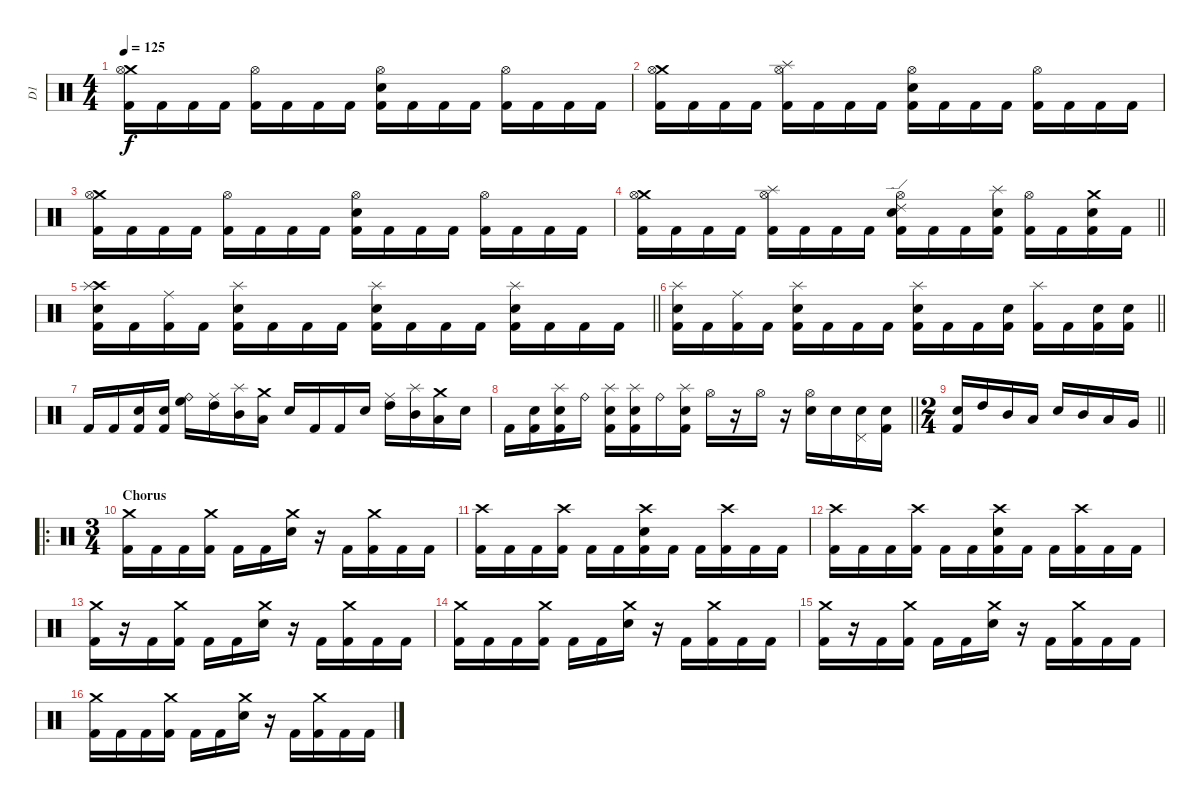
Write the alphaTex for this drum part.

\track ("D1" "D1") {instrument percussion}
\staff {score}
\articulation defaults
\ts (4 4)
\section ("" "")
\tempo 125
\clef neutral
\ks c
("Crash medium (hit)" "Hi-Hat (open)" "Kick (hit) 2").16{dy f} "Kick (hit) 2".16 "Kick (hit) 2".16 "Kick (hit) 2".16 ("Hi-Hat (open)" "Kick (hit) 2").16 "Kick (hit) 2".16 "Kick (hit) 2".16 "Kick (hit) 2".16 ("Hi-Hat (open)" "Snare (hit) 2" "Kick (hit) 2").16 "Kick (hit) 2".16 "Kick (hit) 2".16 "Kick (hit) 2".16 ("Hi-Hat (open)" "Kick (hit) 2").16 "Kick (hit) 2".16 "Kick (hit) 2".16 "Kick (hit) 2".16 |
("Crash medium (hit)" "Hi-Hat (open)" "Kick (hit) 2").16 "Kick (hit) 2".16 "Kick (hit) 2".16 "Kick (hit) 2".16 ("Splash (hit)" "Hi-Hat (open)" "Kick (hit) 2").16 "Kick (hit) 2".16 "Kick (hit) 2".16 "Kick (hit) 2".16 ("Hi-Hat (open)" "Snare (hit) 2" "Kick (hit) 2").16 "Kick (hit) 2".16 "Kick (hit) 2".16 "Kick (hit) 2".16 ("Hi-Hat (open)" "Kick (hit) 2").16 "Kick (hit) 2".16 "Kick (hit) 2".16 "Kick (hit) 2".16 |
("Crash medium (hit)" "Hi-Hat (open)" "Kick (hit) 2").16 "Kick (hit) 2".16 "Kick (hit) 2".16 "Kick (hit) 2".16 ("Hi-Hat (open)" "Kick (hit) 2").16 "Kick (hit) 2".16 "Kick (hit) 2".16 "Kick (hit) 2".16 ("Hi-Hat (open)" "Snare (hit) 2" "Kick (hit) 2").16 "Kick (hit) 2".16 "Kick (hit) 2".16 "Kick (hit) 2".16 ("Hi-Hat (open)" "Kick (hit) 2").16 "Kick (hit) 2".16 "Kick (hit) 2".16 "Kick (hit) 2".16 |
\barLineRight lightlight
("Crash medium (hit)" "Hi-Hat (open)" "Kick (hit) 2").16 "Kick (hit) 2".16 "Kick (hit) 2".16 "Kick (hit) 2".16 ("Splash (hit)" "Hi-Hat (open)" "Kick (hit) 2").16 "Kick (hit) 2".16 "Kick (hit) 2".16 "Kick (hit) 2".16 ("Ride (edge) 2" "Hi-Hat (open)" "Snare (hit) 2" "Kick (hit) 2").16 "Kick (hit) 2".16 "Kick (hit) 2".16 ("Splash (hit)" "Snare (hit) 2" "Kick (hit) 2").16 ("Hi-Hat (open)" "Kick (hit) 2").16 "Kick (hit) 2".16 ("Crash medium (hit)" "Snare (hit) 2" "Kick (hit) 2").16 "Kick (hit) 2".16 |
\section ("" "")
\barLineRight lightlight
("Crash high (hit)" "Splash (hit)" "Snare (hit) 2" "Kick (hit) 2").16 "Kick (hit) 2".16 ("Ride (middle)" "Kick (hit) 2").16 "Kick (hit) 2".16 ("Splash (hit)" "Snare (hit) 2" "Kick (hit) 2").16 "Kick (hit) 2".16 "Kick (hit) 2".16 "Kick (hit) 2".16 ("Splash (hit)" "Snare (hit) 2" "Kick (hit) 2").16 "Kick (hit) 2".16 "Kick (hit) 2".16 "Kick (hit) 2".16 ("Splash (hit)" "Snare (hit) 2" "Kick (hit) 2").16 "Kick (hit) 2".16 "Kick (hit) 2".16 "Kick (hit) 2".16 |
\barLineRight lightlight
("Splash (hit)" "Snare (hit) 2" "Kick (hit) 2").16 "Kick (hit) 2".16 ("Ride (middle)" "Kick (hit) 2").16 "Kick (hit) 2".16 ("Splash (hit)" "Snare (hit) 2" "Kick (hit) 2").16 "Kick (hit) 2".16 "Kick (hit) 2".16 "Kick (hit) 2".16 ("Splash (hit)" "Snare (hit) 2" "Kick (hit) 2").16 "Kick (hit) 2".16 "Kick (hit) 2".16 ("Snare (hit) 2" "Kick (hit) 2").16 ("Splash (hit)" "Kick (hit) 2").16 "Kick (hit) 2".16 ("Snare (hit) 2" "Kick (hit) 2").16 ("Snare (hit) 2" "Kick (hit) 2").16 |
"Kick (hit) 2".16 "Kick (hit) 2".16 ("Snare (hit) 2" "Kick (hit) 2").16 ("Snare (hit) 2" "Kick (hit) 2").16 ("Ride (bell)" "High Floor Tom (hit)").16 ("Ride (middle)" "High Tom (hit)").16 ("Splash (hit)" "Mid Tom (hit)").16 ("Crash medium (hit)" "Low Tom (hit)").16 "Snare (hit) 2".16 "Kick (hit) 2".16 "Kick (hit) 2".16 "Snare (hit) 2".16 ("Ride (middle)" "High Tom (hit)").16 ("Splash (hit)" "Mid Tom (hit)").16 ("Crash medium (hit)" "Low Tom (hit)").16 "Snare (hit) 2".16 |
\barLineRight lightlight "Kick (hit) 2".16
("Snare (hit) 2" "Kick (hit) 2").16 ("Splash (hit)" "Snare (hit) 2" "Kick (hit) 2").16 "Ride (bell)".16 ("Splash (hit)" "Snare (hit) 2" "Kick (hit) 2").16 ("Splash (hit)" "Snare (hit) 2" "Kick (hit) 2").16 "Ride (bell)".16 ("Splash (hit)" "Snare (hit) 2" "Kick (hit) 2").16 "Hi-Hat (open)".16 r.16 "Hi-Hat (open)".16 r.16 ("Hi-Hat (open)" "Snare (hit) 2").16 "Snare (hit) 2".16 ("Pedal Hi-Hat (hit)" "Snare (hit) 2").16 ("Snare (hit) 2" "Kick (hit) 2").16 |
\ts (2 4)
\barLineRight lightlight
("Snare (hit) 2" "Kick (hit) 2").16 "High Tom (hit)".16 "Mid Tom (hit)".16 "Low Tom (hit)".16 "Snare (hit) 2".16 "Mid Tom (hit)".16 "Low Tom (hit)".16 "Very Low Tom (hit)".16 |
\ro
\ts (3 4)
\section ("" "Chorus")
("Crash medium (hit)" "Kick (hit) 2").16 "Kick (hit) 2".16 "Kick (hit) 2".16 ("Crash medium (hit)" "Kick (hit) 2").16 "Kick (hit) 2".16 "Kick (hit) 2".16 ("Crash medium (hit)" "Snare (hit) 2").16 r.16 "Kick (hit) 2".16 ("Crash medium (hit)" "Kick (hit) 2").16 "Kick (hit) 2".16 "Kick (hit) 2".16 |
("Crash high (hit)" "Kick (hit) 2").16 "Kick (hit) 2".16 "Kick (hit) 2".16 ("Crash high (hit)" "Kick (hit) 2").16 "Kick (hit) 2".16 "Kick (hit) 2".16 ("Crash high (hit)" "Snare (hit) 2" "Kick (hit) 2").16 "Kick (hit) 2".16 "Kick (hit) 2".16 ("Crash high (hit)" "Kick (hit) 2").16 "Kick (hit) 2".16 "Kick (hit) 2".16 |
("Crash high (hit)" "Kick (hit) 2").16 "Kick (hit) 2".16 "Kick (hit) 2".16 ("Crash high (hit)" "Kick (hit) 2").16 "Kick (hit) 2".16 "Kick (hit) 2".16 ("Crash high (hit)" "Snare (hit) 2" "Kick (hit) 2").16 "Kick (hit) 2".16 "Kick (hit) 2".16 ("Crash high (hit)" "Kick (hit) 2").16 "Kick (hit) 2".16 "Kick (hit) 2".16 |
("Crash medium (hit)" "Kick (hit) 2").16 r.16 "Kick (hit) 2".16 ("Crash medium (hit)" "Kick (hit) 2").16 "Kick (hit) 2".16 "Kick (hit) 2".16 ("Crash medium (hit)" "Snare (hit) 2").16 r.16 "Kick (hit) 2".16 ("Crash medium (hit)" "Kick (hit) 2").16 "Kick (hit) 2".16 "Kick (hit) 2".16 |
("Crash medium (hit)" "Kick (hit) 2").16 "Kick (hit) 2".16 "Kick (hit) 2".16 ("Crash medium (hit)" "Kick (hit) 2").16 "Kick (hit) 2".16 "Kick (hit) 2".16 ("Crash medium (hit)" "Snare (hit) 2").16 r.16 "Kick (hit) 2".16 ("Crash medium (hit)" "Kick (hit) 2").16 "Kick (hit) 2".16 "Kick (hit) 2".16 |
("Crash medium (hit)" "Kick (hit) 2").16 r.16 "Kick (hit) 2".16 ("Crash medium (hit)" "Kick (hit) 2").16 "Kick (hit) 2".16 "Kick (hit) 2".16 ("Crash medium (hit)" "Snare (hit) 2").16 r.16 "Kick (hit) 2".16 ("Crash medium (hit)" "Kick (hit) 2").16 "Kick (hit) 2".16 "Kick (hit) 2".16 |
("Crash medium (hit)" "Kick (hit) 2").16 "Kick (hit) 2".16 "Kick (hit) 2".16 ("Crash medium (hit)" "Kick (hit) 2").16 "Kick (hit) 2".16 "Kick (hit) 2".16 ("Crash medium (hit)" "Snare (hit) 2").16 r.16 "Kick (hit) 2".16 ("Crash medium (hit)" "Kick (hit) 2").16 "Kick (hit) 2".16 "Kick (hit) 2".16
